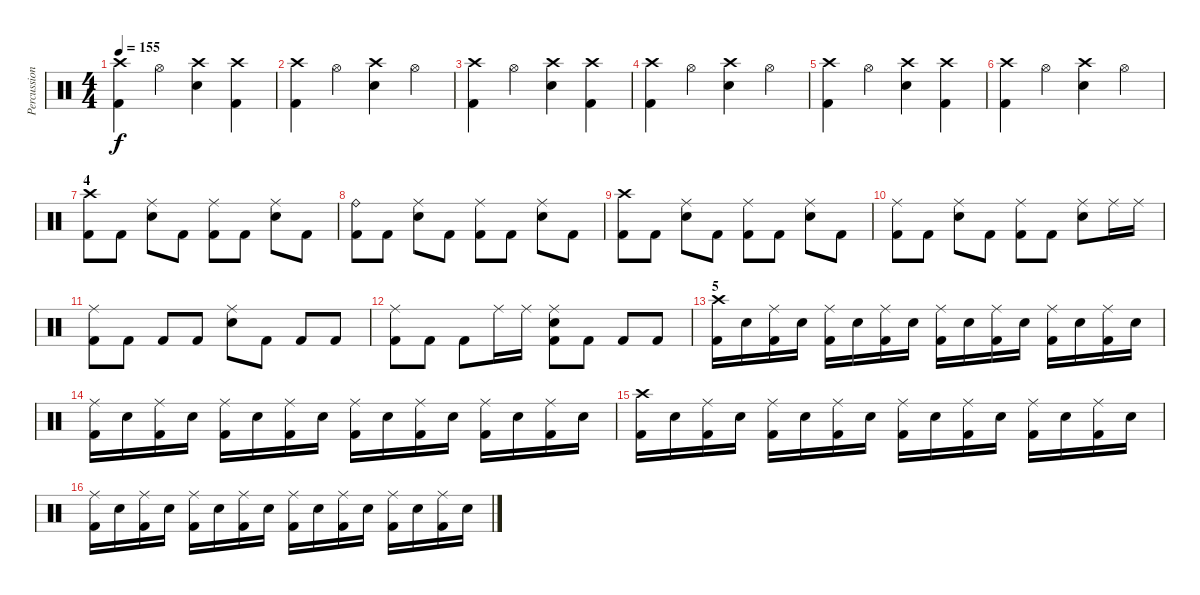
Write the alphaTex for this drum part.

\track ("Percussion" "Percussion") {instrument percussion}
\staff {score}
\articulation defaults
\ts (4 4)
\tempo 155
\clef neutral
\ks c
("Crash high (hit)" "Kick (hit) 2").4{dy f} "Hi-Hat (open)".4 ("Crash high (hit)" "Snare (hit) 2").4 ("Crash high (hit)" "Kick (hit) 2").4 |
("Crash high (hit)" "Kick (hit) 2").4 "Hi-Hat (open)".4 ("Crash high (hit)" "Snare (hit) 2").4 "Hi-Hat (open)".4 |
("Crash high (hit)" "Kick (hit) 2").4 "Hi-Hat (open)".4 ("Crash high (hit)" "Snare (hit) 2").4 ("Crash high (hit)" "Kick (hit) 2").4 |
("Crash high (hit)" "Kick (hit) 2").4 "Hi-Hat (open)".4 ("Crash high (hit)" "Snare (hit) 2").4 "Hi-Hat (open)".4 |
("Crash high (hit)" "Kick (hit) 2").4 "Hi-Hat (open)".4 ("Crash high (hit)" "Snare (hit) 2").4 ("Crash high (hit)" "Kick (hit) 2").4 |
("Crash high (hit)" "Kick (hit) 2").4 "Hi-Hat (open)".4 ("Crash high (hit)" "Snare (hit) 2").4 "Hi-Hat (open)".4 |
\section ("" "4")
("Crash high (hit)" "Kick (hit) 2").8 "Kick (hit) 2".8 ("Ride (middle)" "Snare (hit) 2").8 "Kick (hit) 2".8 ("Ride (middle)" "Kick (hit) 2").8 "Kick (hit) 2".8 ("Ride (middle)" "Snare (hit) 2").8 "Kick (hit) 2".8 |
("Ride (bell)" "Kick (hit) 2").8 "Kick (hit) 2".8 ("Ride (middle)" "Snare (hit) 2").8 "Kick (hit) 2".8 ("Ride (middle)" "Kick (hit) 2").8 "Kick (hit) 2".8 ("Ride (middle)" "Snare (hit) 2").8 "Kick (hit) 2".8 |
("Crash high (hit)" "Kick (hit) 2").8 "Kick (hit) 2".8 ("Ride (middle)" "Snare (hit) 2").8 "Kick (hit) 2".8 ("Ride (middle)" "Kick (hit) 2").8 "Kick (hit) 2".8 ("Ride (middle)" "Snare (hit) 2").8 "Kick (hit) 2".8 |
("Ride (middle)" "Kick (hit) 2").8 "Kick (hit) 2".8 ("Ride (middle)" "Snare (hit) 2").8 "Kick (hit) 2".8 ("Ride (middle)" "Kick (hit) 2").8 "Kick (hit) 2".8 ("Ride (middle)" "Snare (hit) 2").8 "Ride (middle)".16 "Ride (middle)".16 |
("Ride (middle)" "Kick (hit) 2").8 "Kick (hit) 2".8 "Kick (hit) 2".8 "Kick (hit) 2".8 ("Ride (middle)" "Snare (hit) 2").8 "Kick (hit) 2".8 "Kick (hit) 2".8 "Kick (hit) 2".8 |
("Ride (middle)" "Kick (hit) 2").8 "Kick (hit) 2".8 "Kick (hit) 2".8 "Ride (middle)".16 "Ride (middle)".16 ("Ride (middle)" "Snare (hit) 2" "Kick (hit) 2").8 "Kick (hit) 2".8 "Kick (hit) 2".8 "Kick (hit) 2".8 |
\section ("" "5")
("Crash high (hit)" "Kick (hit) 2").16 "Snare (hit) 2".16 ("Ride (middle)" "Kick (hit) 2").16 "Snare (hit) 2".16 ("Ride (middle)" "Kick (hit) 2").16 "Snare (hit) 2".16 ("Ride (middle)" "Kick (hit) 2").16 "Snare (hit) 2".16 ("Ride (middle)" "Kick (hit) 2").16 "Snare (hit) 2".16 ("Ride (middle)" "Kick (hit) 2").16 "Snare (hit) 2".16 ("Ride (middle)" "Kick (hit) 2").16 "Snare (hit) 2".16 ("Ride (middle)" "Kick (hit) 2").16 "Snare (hit) 2".16 |
("Ride (middle)" "Kick (hit) 2").16 "Snare (hit) 2".16 ("Ride (middle)" "Kick (hit) 2").16 "Snare (hit) 2".16 ("Ride (middle)" "Kick (hit) 2").16 "Snare (hit) 2".16 ("Ride (middle)" "Kick (hit) 2").16 "Snare (hit) 2".16 ("Ride (middle)" "Kick (hit) 2").16 "Snare (hit) 2".16 ("Ride (middle)" "Kick (hit) 2").16 "Snare (hit) 2".16 ("Ride (middle)" "Kick (hit) 2").16 "Snare (hit) 2".16 ("Ride (middle)" "Kick (hit) 2").16 "Snare (hit) 2".16 |
("Crash high (hit)" "Kick (hit) 2").16 "Snare (hit) 2".16 ("Ride (middle)" "Kick (hit) 2").16 "Snare (hit) 2".16 ("Ride (middle)" "Kick (hit) 2").16 "Snare (hit) 2".16 ("Ride (middle)" "Kick (hit) 2").16 "Snare (hit) 2".16 ("Ride (middle)" "Kick (hit) 2").16 "Snare (hit) 2".16 ("Ride (middle)" "Kick (hit) 2").16 "Snare (hit) 2".16 ("Ride (middle)" "Kick (hit) 2").16 "Snare (hit) 2".16 ("Ride (middle)" "Kick (hit) 2").16 "Snare (hit) 2".16 |
("Ride (middle)" "Kick (hit) 2").16 "Snare (hit) 2".16 ("Ride (middle)" "Kick (hit) 2").16 "Snare (hit) 2".16 ("Ride (middle)" "Kick (hit) 2").16 "Snare (hit) 2".16 ("Ride (middle)" "Kick (hit) 2").16 "Snare (hit) 2".16 ("Ride (middle)" "Kick (hit) 2").16 "Snare (hit) 2".16 ("Ride (middle)" "Kick (hit) 2").16 "Snare (hit) 2".16 ("Ride (middle)" "Kick (hit) 2").16 "Snare (hit) 2".16 ("Ride (middle)" "Kick (hit) 2").16 "Snare (hit) 2".16
